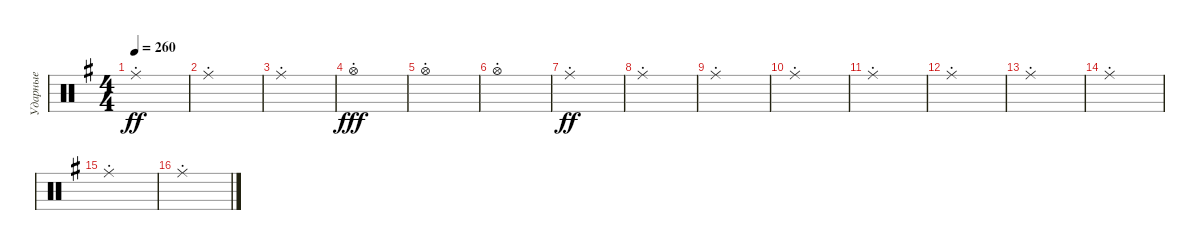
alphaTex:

\track ("Ударные" "Ударные") {instrument percussion}
\staff {score}
\articulation defaults
\ts (4 4)
\tempo 260
\clef neutral
\ks g "Ride (middle)"{st}.1{dy ff}
|
"Ride (middle)"{st}.1 |
"Ride (middle)"{st}.1 |
"Hi-Hat (open)"{st}.1{dy fff} |
"Hi-Hat (open)"{st}.1 |
"Hi-Hat (open)"{st}.1 |
"Ride (middle)"{st}.1{dy ff} |
"Ride (middle)"{st}.1 |
"Ride (middle)"{st}.1 |
"Ride (middle)"{st}.1 |
"Ride (middle)"{st}.1 |
"Ride (middle)"{st}.1 |
"Ride (middle)"{st}.1 |
"Ride (middle)"{st}.1 |
"Ride (middle)"{st}.1 |
"Ride (middle)"{st}.1
